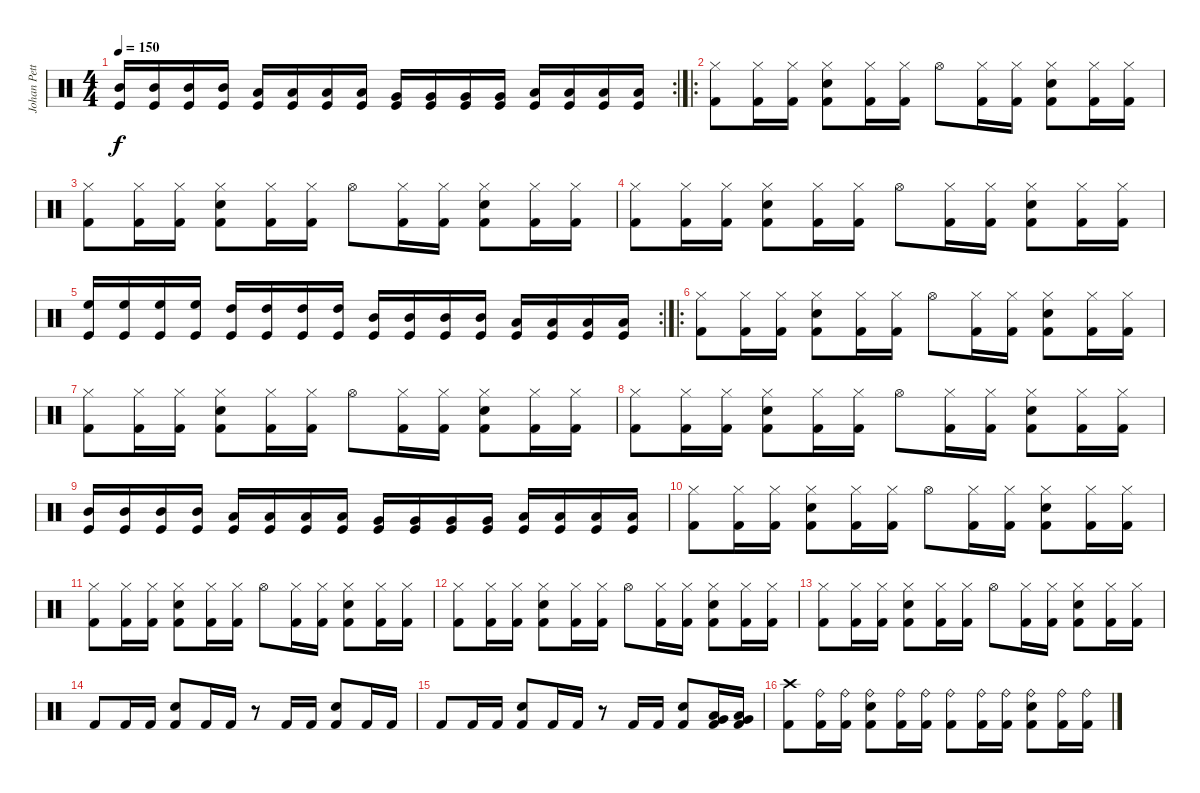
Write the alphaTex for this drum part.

\track ("Johan Petterson" "Johan Pett") {instrument percussion}
\staff {score}
\articulation defaults
\rc 2
\ts (4 4)
\tempo 150
\clef neutral
\ks c
("Kick (hit)" "Mid Tom (hit)").16{dy f} ("Kick (hit)" "Mid Tom (hit)").16 ("Kick (hit)" "Mid Tom (hit)").16 ("Kick (hit)" "Mid Tom (hit)").16 ("Kick (hit)" "Low Tom (hit)").16 ("Kick (hit)" "Low Tom (hit)").16 ("Kick (hit)" "Low Tom (hit)").16 ("Kick (hit)" "Low Tom (hit)").16 ("Kick (hit)" "Very Low Tom (hit)").16 ("Kick (hit)" "Very Low Tom (hit)").16 ("Kick (hit)" "Very Low Tom (hit)").16 ("Kick (hit)" "Very Low Tom (hit)").16 ("Kick (hit)" "Low Floor Tom (hit)").16 ("Kick (hit)" "Low Floor Tom (hit)").16 ("Kick (hit)" "Low Floor Tom (hit)").16 ("Kick (hit)" "Low Floor Tom (hit)").16 |
\ro
("Hi-Hat (closed)" "Kick (hit) 2").8 ("Hi-Hat (closed)" "Kick (hit) 2").16 ("Hi-Hat (closed)" "Kick (hit) 2").16 ("Hi-Hat (closed)" "Snare (hit) 2" "Kick (hit) 2").8 ("Hi-Hat (closed)" "Kick (hit) 2").16 ("Hi-Hat (closed)" "Kick (hit) 2").16 "Hi-Hat (open)".8 ("Hi-Hat (closed)" "Kick (hit) 2").16 ("Hi-Hat (closed)" "Kick (hit) 2").16 ("Hi-Hat (closed)" "Snare (hit) 2" "Kick (hit) 2").8 ("Hi-Hat (closed)" "Kick (hit) 2").16 ("Hi-Hat (closed)" "Kick (hit) 2").16 |
("Hi-Hat (closed)" "Kick (hit) 2").8 ("Hi-Hat (closed)" "Kick (hit) 2").16 ("Hi-Hat (closed)" "Kick (hit) 2").16 ("Hi-Hat (closed)" "Snare (hit) 2" "Kick (hit) 2").8 ("Hi-Hat (closed)" "Kick (hit) 2").16 ("Hi-Hat (closed)" "Kick (hit) 2").16 "Hi-Hat (open)".8 ("Hi-Hat (closed)" "Kick (hit) 2").16 ("Hi-Hat (closed)" "Kick (hit) 2").16 ("Hi-Hat (closed)" "Snare (hit) 2" "Kick (hit) 2").8 ("Hi-Hat (closed)" "Kick (hit) 2").16 ("Hi-Hat (closed)" "Kick (hit) 2").16 |
("Hi-Hat (closed)" "Kick (hit) 2").8 ("Hi-Hat (closed)" "Kick (hit) 2").16 ("Hi-Hat (closed)" "Kick (hit) 2").16 ("Hi-Hat (closed)" "Snare (hit) 2" "Kick (hit) 2").8 ("Hi-Hat (closed)" "Kick (hit) 2").16 ("Hi-Hat (closed)" "Kick (hit) 2").16 "Hi-Hat (open)".8 ("Hi-Hat (closed)" "Kick (hit) 2").16 ("Hi-Hat (closed)" "Kick (hit) 2").16 ("Hi-Hat (closed)" "Snare (hit) 2" "Kick (hit) 2").8 ("Hi-Hat (closed)" "Kick (hit) 2").16 ("Hi-Hat (closed)" "Kick (hit) 2").16 |
\rc 2
("Kick (hit)" "High Floor Tom (hit)").16 ("Kick (hit)" "High Floor Tom (hit)").16 ("Kick (hit)" "High Floor Tom (hit)").16 ("Kick (hit)" "High Floor Tom (hit)").16 ("Kick (hit)" "High Tom (hit)").16 ("Kick (hit)" "High Tom (hit)").16 ("Kick (hit)" "High Tom (hit)").16 ("Kick (hit)" "High Tom (hit)").16 ("Kick (hit)" "Mid Tom (hit)").16 ("Kick (hit)" "Mid Tom (hit)").16 ("Kick (hit)" "Mid Tom (hit)").16 ("Kick (hit)" "Mid Tom (hit)").16 ("Kick (hit)" "Low Tom (hit)").16 ("Kick (hit)" "Low Tom (hit)").16 ("Kick (hit)" "Low Tom (hit)").16 ("Kick (hit)" "Low Tom (hit)").16 |
\ro
("Hi-Hat (closed)" "Kick (hit) 2").8 ("Hi-Hat (closed)" "Kick (hit) 2").16 ("Hi-Hat (closed)" "Kick (hit) 2").16 ("Hi-Hat (closed)" "Snare (hit) 2" "Kick (hit) 2").8 ("Hi-Hat (closed)" "Kick (hit) 2").16 ("Hi-Hat (closed)" "Kick (hit) 2").16 "Hi-Hat (open)".8 ("Hi-Hat (closed)" "Kick (hit) 2").16 ("Hi-Hat (closed)" "Kick (hit) 2").16 ("Hi-Hat (closed)" "Snare (hit) 2" "Kick (hit) 2").8 ("Hi-Hat (closed)" "Kick (hit) 2").16 ("Hi-Hat (closed)" "Kick (hit) 2").16 |
("Hi-Hat (closed)" "Kick (hit) 2").8 ("Hi-Hat (closed)" "Kick (hit) 2").16 ("Hi-Hat (closed)" "Kick (hit) 2").16 ("Hi-Hat (closed)" "Snare (hit) 2" "Kick (hit) 2").8 ("Hi-Hat (closed)" "Kick (hit) 2").16 ("Hi-Hat (closed)" "Kick (hit) 2").16 "Hi-Hat (open)".8 ("Hi-Hat (closed)" "Kick (hit) 2").16 ("Hi-Hat (closed)" "Kick (hit) 2").16 ("Hi-Hat (closed)" "Snare (hit) 2" "Kick (hit) 2").8 ("Hi-Hat (closed)" "Kick (hit) 2").16 ("Hi-Hat (closed)" "Kick (hit) 2").16 |
("Hi-Hat (closed)" "Kick (hit) 2").8 ("Hi-Hat (closed)" "Kick (hit) 2").16 ("Hi-Hat (closed)" "Kick (hit) 2").16 ("Hi-Hat (closed)" "Snare (hit) 2" "Kick (hit) 2").8 ("Hi-Hat (closed)" "Kick (hit) 2").16 ("Hi-Hat (closed)" "Kick (hit) 2").16 "Hi-Hat (open)".8 ("Hi-Hat (closed)" "Kick (hit) 2").16 ("Hi-Hat (closed)" "Kick (hit) 2").16 ("Hi-Hat (closed)" "Snare (hit) 2" "Kick (hit) 2").8 ("Hi-Hat (closed)" "Kick (hit) 2").16 ("Hi-Hat (closed)" "Kick (hit) 2").16 |
("Kick (hit)" "Mid Tom (hit)").16 ("Kick (hit)" "Mid Tom (hit)").16 ("Kick (hit)" "Mid Tom (hit)").16 ("Kick (hit)" "Mid Tom (hit)").16 ("Kick (hit)" "Low Tom (hit)").16 ("Kick (hit)" "Low Tom (hit)").16 ("Kick (hit)" "Low Tom (hit)").16 ("Kick (hit)" "Low Tom (hit)").16 ("Kick (hit)" "Very Low Tom (hit)").16 ("Kick (hit)" "Very Low Tom (hit)").16 ("Kick (hit)" "Very Low Tom (hit)").16 ("Kick (hit)" "Very Low Tom (hit)").16 ("Kick (hit)" "Low Floor Tom (hit)").16 ("Kick (hit)" "Low Floor Tom (hit)").16 ("Kick (hit)" "Low Floor Tom (hit)").16 ("Kick (hit)" "Low Floor Tom (hit)").16 |
("Hi-Hat (closed)" "Kick (hit) 2").8 ("Hi-Hat (closed)" "Kick (hit) 2").16 ("Hi-Hat (closed)" "Kick (hit) 2").16 ("Hi-Hat (closed)" "Snare (hit) 2" "Kick (hit) 2").8 ("Hi-Hat (closed)" "Kick (hit) 2").16 ("Hi-Hat (closed)" "Kick (hit) 2").16 "Hi-Hat (open)".8 ("Hi-Hat (closed)" "Kick (hit) 2").16 ("Hi-Hat (closed)" "Kick (hit) 2").16 ("Hi-Hat (closed)" "Snare (hit) 2" "Kick (hit) 2").8 ("Hi-Hat (closed)" "Kick (hit) 2").16 ("Hi-Hat (closed)" "Kick (hit) 2").16 |
("Hi-Hat (closed)" "Kick (hit) 2").8 ("Hi-Hat (closed)" "Kick (hit) 2").16 ("Hi-Hat (closed)" "Kick (hit) 2").16 ("Hi-Hat (closed)" "Snare (hit) 2" "Kick (hit) 2").8 ("Hi-Hat (closed)" "Kick (hit) 2").16 ("Hi-Hat (closed)" "Kick (hit) 2").16 "Hi-Hat (open)".8 ("Hi-Hat (closed)" "Kick (hit) 2").16 ("Hi-Hat (closed)" "Kick (hit) 2").16 ("Hi-Hat (closed)" "Snare (hit) 2" "Kick (hit) 2").8 ("Hi-Hat (closed)" "Kick (hit) 2").16 ("Hi-Hat (closed)" "Kick (hit) 2").16 |
("Hi-Hat (closed)" "Kick (hit) 2").8 ("Hi-Hat (closed)" "Kick (hit) 2").16 ("Hi-Hat (closed)" "Kick (hit) 2").16 ("Hi-Hat (closed)" "Snare (hit) 2" "Kick (hit) 2").8 ("Hi-Hat (closed)" "Kick (hit) 2").16 ("Hi-Hat (closed)" "Kick (hit) 2").16 "Hi-Hat (open)".8 ("Hi-Hat (closed)" "Kick (hit) 2").16 ("Hi-Hat (closed)" "Kick (hit) 2").16 ("Hi-Hat (closed)" "Snare (hit) 2" "Kick (hit) 2").8 ("Hi-Hat (closed)" "Kick (hit) 2").16 ("Hi-Hat (closed)" "Kick (hit) 2").16 |
("Hi-Hat (closed)" "Kick (hit) 2").8 ("Hi-Hat (closed)" "Kick (hit) 2").16 ("Hi-Hat (closed)" "Kick (hit) 2").16 ("Hi-Hat (closed)" "Snare (hit) 2" "Kick (hit) 2").8 ("Hi-Hat (closed)" "Kick (hit) 2").16 ("Hi-Hat (closed)" "Kick (hit) 2").16 "Hi-Hat (open)".8 ("Hi-Hat (closed)" "Kick (hit) 2").16 ("Hi-Hat (closed)" "Kick (hit) 2").16 ("Hi-Hat (closed)" "Snare (hit) 2" "Kick (hit) 2").8 ("Hi-Hat (closed)" "Kick (hit) 2").16 ("Hi-Hat (closed)" "Kick (hit) 2").16 |
\section ("" "")
"Kick (hit) 2".8 "Kick (hit) 2".16 "Kick (hit) 2".16 ("Snare (hit) 2" "Kick (hit) 2").8 "Kick (hit) 2".16 "Kick (hit) 2".16 r.8 "Kick (hit) 2".16 "Kick (hit) 2".16 ("Snare (hit) 2" "Kick (hit) 2").8 "Kick (hit) 2".16 "Kick (hit) 2".16 |
"Kick (hit) 2".8 "Kick (hit) 2".16 "Kick (hit) 2".16 ("Snare (hit) 2" "Kick (hit) 2").8 "Kick (hit) 2".16 "Kick (hit) 2".16 r.8 "Kick (hit) 2".16 "Kick (hit) 2".16 ("Snare (hit) 2" "Kick (hit) 2").8 ("Low Tom (hit)" "Very Low Tom (hit)" "Kick (hit) 2").16 ("Low Tom (hit)" "Very Low Tom (hit)" "Kick (hit) 2").16 |
("Crash high (hit)" "Kick (hit) 2").8 ("Ride (bell)" "Kick (hit) 2").16 ("Ride (bell)" "Kick (hit) 2").16 ("Ride (bell)" "Snare (hit) 2" "Kick (hit) 2").8 ("Ride (bell)" "Kick (hit) 2").16 ("Ride (bell)" "Kick (hit) 2").16 ("Ride (bell)" "Kick (hit) 2").8 ("Ride (bell)" "Kick (hit) 2").16 ("Ride (bell)" "Kick (hit) 2").16 ("Ride (bell)" "Snare (hit) 2" "Kick (hit) 2").8 ("Ride (bell)" "Kick (hit) 2").16 ("Ride (bell)" "Kick (hit) 2").16
